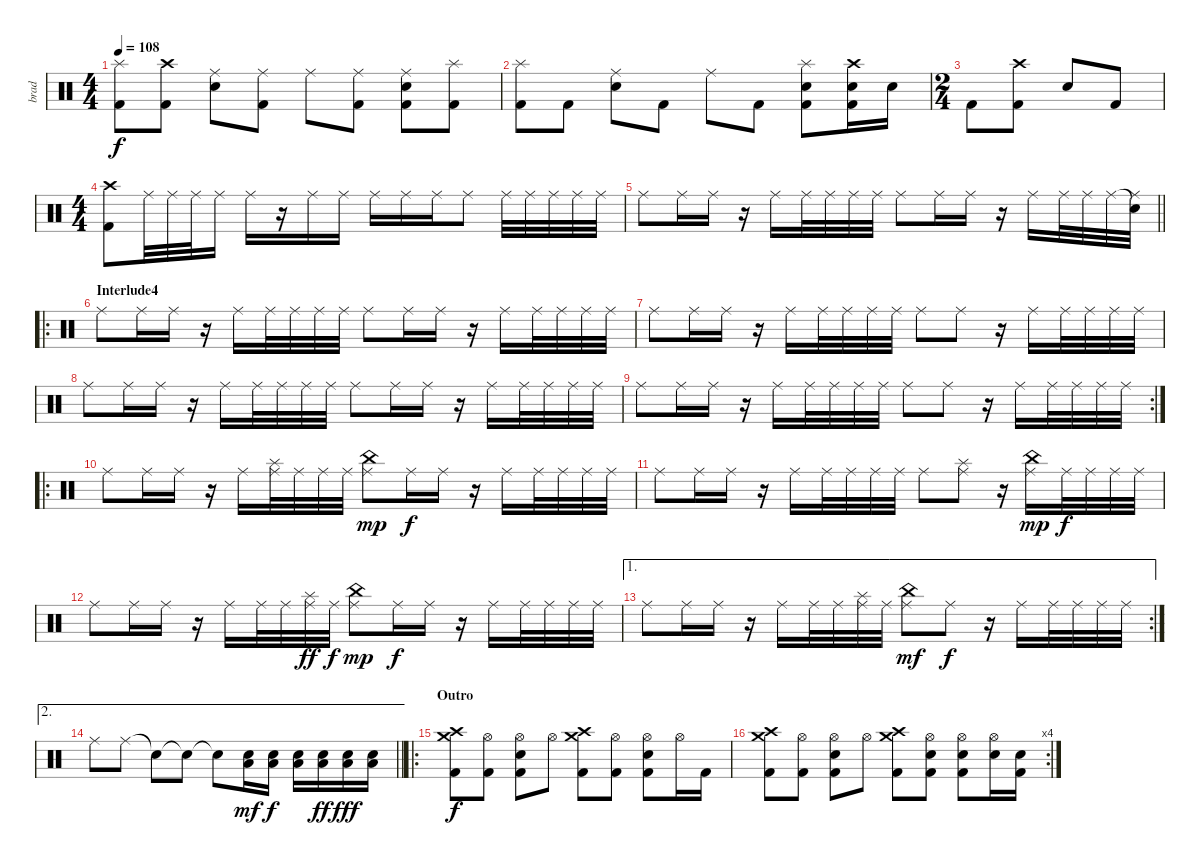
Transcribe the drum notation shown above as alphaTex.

\track ("brad" "brad") {instrument percussion}
\staff {score}
\articulation defaults
\ts (4 4)
\tempo 108
\clef neutral
\ks c
("Splash (hit)" "Kick (hit) 2").8{dy f} ("Crash high (hit)" "Kick (hit) 2").8 ("Ride (middle)" "Electric Snare (hit)").8 ("Ride (middle)" "Kick (hit) 2").8 "Ride (middle)".8 ("Ride (middle)" "Kick (hit) 2").8 ("Ride (middle)" "Electric Snare (hit)" "Kick (hit) 2").8 ("Splash (hit)" "Kick (hit) 2").8 |
("Splash (hit)" "Kick (hit) 2").8 "Kick (hit) 2".8 ("Ride (middle)" "Electric Snare (hit)").8 "Kick (hit) 2".8 "Ride (middle)".8 "Kick (hit) 2".8 ("Splash (hit)" "Electric Snare (hit)" "Kick (hit) 2").8 ("Crash high (hit)" "Electric Snare (hit)" "Kick (hit) 2").16 "Electric Snare (hit)".16 |
\ts (2 4)
"Kick (hit) 2".8 ("Crash high (hit)" "Kick (hit) 2").8 "Electric Snare (hit)".8 "Kick (hit) 2".8 |
\ts (4 4)
("Crash high (hit)" "Kick (hit) 2").8 "Ride (middle)".32 "Ride (middle)".32 "Ride (middle)".32 "Ride (middle)".16 "Ride (middle)".16 r.16 "Ride (middle)".16 "Ride (middle)".16 "Ride (middle)".16 "Ride (middle)".16 "Ride (middle)".16 "Ride (middle)".8 "Ride (middle)".32 "Ride (middle)".32 "Ride (middle)".32 "Ride (middle)".32 "Ride (middle)".32 |
\barLineRight lightlight "Ride (middle)".8 "Ride (middle)".16 "Ride (middle)".16
r.16 "Ride (middle)".16 "Ride (middle)".32 "Ride (middle)".32 "Ride (middle)".32 "Ride (middle)".32 "Ride (middle)".8 "Ride (middle)".16 "Ride (middle)".16 r.16 "Ride (middle)".16 "Ride (middle)".32 "Ride (middle)".32 "Ride (middle)".32 ("Snare (hit)"{t} "Ride (middle)").32 |
\ro
\section ("" "Interlude4")
"Ride (middle)".8 "Ride (middle)".16 "Ride (middle)".16 r.16 "Ride (middle)".16 "Ride (middle)".32 "Ride (middle)".32 "Ride (middle)".32 "Ride (middle)".32 "Ride (middle)".8 "Ride (middle)".16 "Ride (middle)".16 r.16 "Ride (middle)".16 "Ride (middle)".32 "Ride (middle)".32 "Ride (middle)".32 "Ride (middle)".32 |
"Ride (middle)".8 "Ride (middle)".16 "Ride (middle)".16 r.16 "Ride (middle)".16 "Ride (middle)".32 "Ride (middle)".32 "Ride (middle)".32 "Ride (middle)".32 "Ride (middle)".8 "Ride (middle)".8 r.16 "Ride (middle)".16 "Ride (middle)".32 "Ride (middle)".32 "Ride (middle)".32 "Ride (middle)".32 |
"Ride (middle)".8 "Ride (middle)".16 "Ride (middle)".16 r.16 "Ride (middle)".16 "Ride (middle)".32 "Ride (middle)".32 "Ride (middle)".32 "Ride (middle)".32 "Ride (middle)".8 "Ride (middle)".16 "Ride (middle)".16 r.16 "Ride (middle)".16 "Ride (middle)".32 "Ride (middle)".32 "Ride (middle)".32 "Ride (middle)".32 |
\rc 2 "Ride (middle)".8 "Ride (middle)".16 "Ride (middle)".16
r.16 "Ride (middle)".16 "Ride (middle)".32 "Ride (middle)".32 "Ride (middle)".32 "Ride (middle)".32 "Ride (middle)".8 "Ride (middle)".8 r.16 "Ride (middle)".16 "Ride (middle)".32 "Ride (middle)".32 "Ride (middle)".32 "Ride (middle)".32 |
\ro "Ride (middle)".8 "Ride (middle)".16 "Ride (middle)".16
r.16 "Ride (middle)".16 ("Splash (hit)" "Ride (middle)").32 "Ride (middle)".32 "Ride (middle)".32 "Ride (middle)".32 ("China (hit)" "Ride (middle)").8{dy mp} "Ride (middle)".16{dy f} "Ride (middle)".16 r.16 "Ride (middle)".16 "Ride (middle)".32 "Ride (middle)".32 "Ride (middle)".32 "Ride (middle)".32 |
"Ride (middle)".8 "Ride (middle)".16 "Ride (middle)".16 r.16 "Ride (middle)".16 "Ride (middle)".32 "Ride (middle)".32 "Ride (middle)".32 "Ride (middle)".32 "Ride (middle)".8 ("Splash (hit)" "Ride (middle)").8 r.16 ("China (hit)" "Ride (middle)").16{dy mp} "Ride (middle)".32{dy f} "Ride (middle)".32 "Ride (middle)".32 "Ride (middle)".32 |
"Ride (middle)".8 "Ride (middle)".16 "Ride (middle)".16 r.16 "Ride (middle)".16 "Ride (middle)".32 "Ride (middle)".32 ("Splash (hit)" "Ride (middle)").32{dy ff} "Ride (middle)".32{dy f} ("China (hit)" "Ride (middle)").8{dy mp} "Ride (middle)".16{dy f} "Ride (middle)".16 r.16 "Ride (middle)".16 "Ride (middle)".32 "Ride (middle)".32 "Ride (middle)".32 "Ride (middle)".32 |
\ae 1
\rc 2 "Ride (middle)".8 "Ride (middle)".16 "Ride (middle)".16
r.16 "Ride (middle)".16 "Ride (middle)".32 "Ride (middle)".32 ("Splash (hit)" "Ride (middle)").32 "Ride (middle)".32 ("China (hit)" "Ride (middle)").8{dy mf} "Ride (middle)".8{dy f} r.16 "Ride (middle)".16 "Ride (middle)".32 "Ride (middle)".32 "Ride (middle)".32 "Ride (middle)".32 |
\ae 2
\barLineRight lightlight "Ride (middle)".8 "Ride (middle)".8 "Snare (hit)"{t}.8 "Snare (hit)"{t}.8 "Snare (hit)"{t}.8
("Electric Snare (hit)" "Low Floor Tom (hit)").16{dy mf} ("Electric Snare (hit)" "Low Floor Tom (hit)").16{dy f} ("Electric Snare (hit)" "Low Floor Tom (hit)").16 ("Electric Snare (hit)" "Low Floor Tom (hit)").16{dy ff} ("Electric Snare (hit)" "Low Floor Tom (hit)").16{dy fff} ("Electric Snare (hit)" "Low Floor Tom (hit)").16 |
\ro
\section ("" "Outro")
("Crash medium (hit)" "Crash high (hit)" "Kick (hit) 2").8{dy f} ("Hi-Hat (open)" "Kick (hit) 2").8 ("Hi-Hat (open)" "Electric Snare (hit)" "Kick (hit) 2").8 "Hi-Hat (open)".8 ("Crash high (hit)" "Crash medium (hit)" "Kick (hit) 2").8 ("Hi-Hat (open)" "Kick (hit) 2").8 ("Hi-Hat (open)" "Electric Snare (hit)" "Kick (hit) 2").8 "Hi-Hat (open)".16 "Kick (hit) 2".16 |
\rc 4
("Crash medium (hit)" "Crash high (hit)" "Kick (hit) 2").8 ("Hi-Hat (open)" "Kick (hit) 2").8 ("Hi-Hat (open)" "Electric Snare (hit)" "Kick (hit) 2").8 "Hi-Hat (open)".8 ("Crash high (hit)" "Crash medium (hit)" "Kick (hit) 2").8 ("Hi-Hat (open)" "Electric Snare (hit)" "Kick (hit) 2").8 ("Hi-Hat (open)" "Electric Snare (hit)" "Kick (hit) 2").8 ("Hi-Hat (open)" "Electric Snare (hit)").16 ("Electric Snare (hit)" "Kick (hit) 2").16
